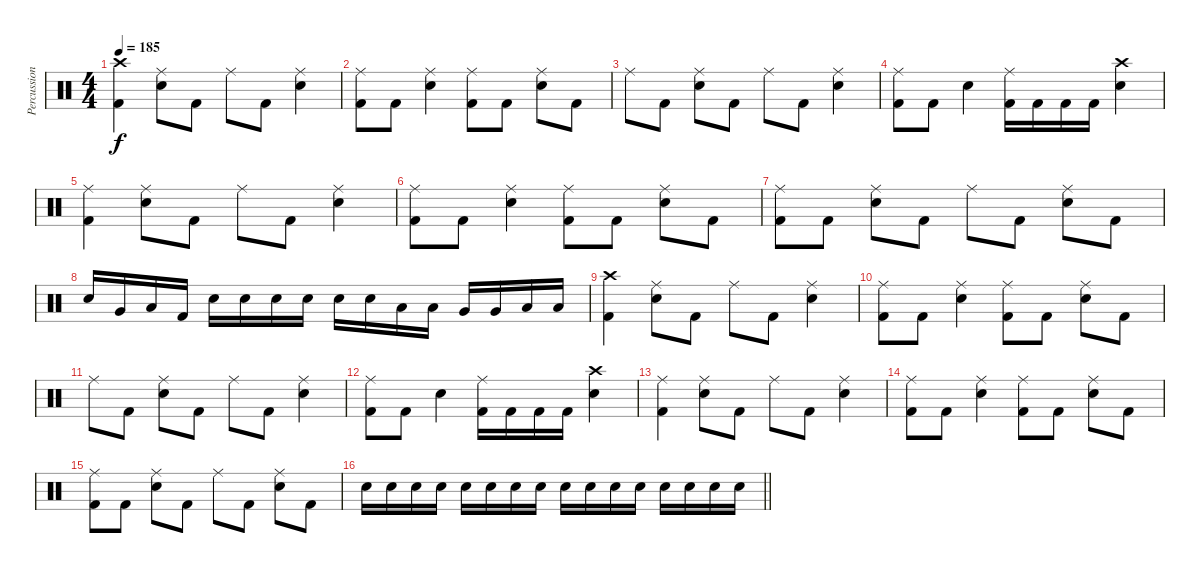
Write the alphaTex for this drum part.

\track ("Percussion" "Percussion") {instrument percussion}
\staff {score}
\articulation defaults
\ts (4 4)
\tempo 185
\clef neutral
\ks c
("Crash high (hit)" "Kick (hit) 2").4{dy f} ("Ride (middle)" "Snare (hit) 2").8 "Kick (hit) 2".8 "Ride (middle)".8 "Kick (hit) 2".8 ("Ride (middle)" "Snare (hit) 2").4 |
("Ride (middle)" "Kick (hit) 2").8 "Kick (hit) 2".8 ("Ride (middle)" "Snare (hit) 2").4 ("Ride (middle)" "Kick (hit) 2").8 "Kick (hit) 2".8 ("Ride (middle)" "Snare (hit) 2").8 "Kick (hit) 2".8 |
"Ride (middle)".8 "Kick (hit) 2".8 ("Ride (middle)" "Snare (hit) 2").8 "Kick (hit) 2".8 "Ride (middle)".8 "Kick (hit) 2".8 ("Ride (middle)" "Snare (hit) 2").4 |
("Ride (middle)" "Kick (hit) 2").8 "Kick (hit) 2".8 "Snare (hit) 2".4 ("Ride (middle)" "Kick (hit) 2").16 "Kick (hit) 2".16 "Kick (hit) 2".16 "Kick (hit) 2".16 ("Crash high (hit)" "Snare (hit) 2").4 |
("Ride (middle)" "Kick (hit) 2").4 ("Ride (middle)" "Snare (hit) 2").8 "Kick (hit) 2".8 "Ride (middle)".8 "Kick (hit) 2".8 ("Ride (middle)" "Snare (hit) 2").4 |
("Ride (middle)" "Kick (hit) 2").8 "Kick (hit) 2".8 ("Ride (middle)" "Snare (hit) 2").4 ("Ride (middle)" "Kick (hit) 2").8 "Kick (hit) 2".8 ("Ride (middle)" "Snare (hit) 2").8 "Kick (hit) 2".8 |
("Ride (middle)" "Kick (hit) 2").8 "Kick (hit) 2".8 ("Ride (middle)" "Snare (hit) 2").8 "Kick (hit) 2".8 "Ride (middle)".8 "Kick (hit) 2".8 ("Ride (middle)" "Snare (hit) 2").8 "Kick (hit) 2".8 |
"Snare (hit) 2".16 "Very Low Tom (hit)".16 "Low Floor Tom (hit)".16 "Kick (hit) 2".16 "Snare (hit) 2".16 "Snare (hit) 2".16 "Snare (hit) 2".16 "Snare (hit) 2".16 "Snare (hit) 2".16 "Snare (hit) 2".16 "Low Tom (hit)".16 "Low Tom (hit)".16 "Very Low Tom (hit)".16 "Very Low Tom (hit)".16 "Low Floor Tom (hit)".16 "Low Floor Tom (hit)".16 |
("Crash high (hit)" "Kick (hit) 2").4 ("Ride (middle)" "Snare (hit) 2").8 "Kick (hit) 2".8 "Ride (middle)".8 "Kick (hit) 2".8 ("Ride (middle)" "Snare (hit) 2").4 |
("Ride (middle)" "Kick (hit) 2").8 "Kick (hit) 2".8 ("Ride (middle)" "Snare (hit) 2").4 ("Ride (middle)" "Kick (hit) 2").8 "Kick (hit) 2".8 ("Ride (middle)" "Snare (hit) 2").8 "Kick (hit) 2".8 |
"Ride (middle)".8 "Kick (hit) 2".8 ("Ride (middle)" "Snare (hit) 2").8 "Kick (hit) 2".8 "Ride (middle)".8 "Kick (hit) 2".8 ("Ride (middle)" "Snare (hit) 2").4 |
("Ride (middle)" "Kick (hit) 2").8 "Kick (hit) 2".8 "Snare (hit) 2".4 ("Ride (middle)" "Kick (hit) 2").16 "Kick (hit) 2".16 "Kick (hit) 2".16 "Kick (hit) 2".16 ("Crash high (hit)" "Snare (hit) 2").4 |
("Ride (middle)" "Kick (hit) 2").4 ("Ride (middle)" "Snare (hit) 2").8 "Kick (hit) 2".8 "Ride (middle)".8 "Kick (hit) 2".8 ("Ride (middle)" "Snare (hit) 2").4 |
("Ride (middle)" "Kick (hit) 2").8 "Kick (hit) 2".8 ("Ride (middle)" "Snare (hit) 2").4 ("Ride (middle)" "Kick (hit) 2").8 "Kick (hit) 2".8 ("Ride (middle)" "Snare (hit) 2").8 "Kick (hit) 2".8 |
("Ride (middle)" "Kick (hit) 2").8 "Kick (hit) 2".8 ("Ride (middle)" "Snare (hit) 2").8 "Kick (hit) 2".8 "Ride (middle)".8 "Kick (hit) 2".8 ("Ride (middle)" "Snare (hit) 2").8 "Kick (hit) 2".8 |
\barLineRight lightlight "Snare (hit) 2".16 "Snare (hit) 2".16 "Snare (hit) 2".16 "Snare (hit) 2".16 "Snare (hit) 2".16 "Snare (hit) 2".16 "Snare (hit) 2".16 "Snare (hit) 2".16 "Snare (hit) 2".16 "Snare (hit) 2".16 "Snare (hit) 2".16 "Snare (hit) 2".16 "Snare (hit) 2".16 "Snare (hit) 2".16 "Snare (hit) 2".16 "Snare (hit) 2".16
